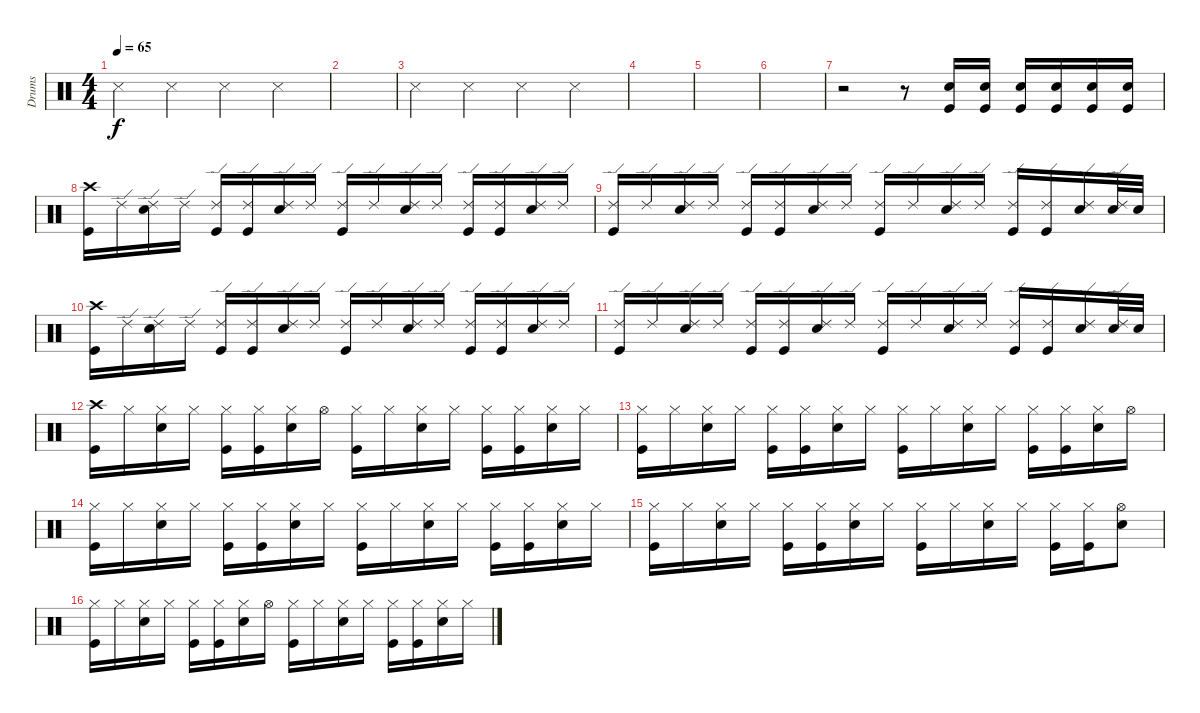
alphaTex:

\track ("Drums" "Drums") {instrument percussion}
\staff {score}
\articulation defaults
\ts (4 4)
\tempo 65
\clef neutral
\ks c "Snare (side stick) 3".4{dy f} "Snare (side stick) 3".4 "Snare (side stick) 3".4 "Snare (side stick) 3".4
|
|
"Snare (side stick) 3".4 "Snare (side stick) 3".4 "Snare (side stick) 3".4 "Snare (side stick) 3".4 |
|
|
|
r.2 r.8 ("Snare (hit) 2" "Kick (hit)").16 ("Snare (hit) 2" "Kick (hit)").16 ("Snare (hit) 2" "Kick (hit)").16 ("Snare (hit) 2" "Kick (hit)").16 ("Snare (hit) 2" "Kick (hit)").16 ("Snare (hit) 2" "Kick (hit)").16 |
("Crash high (hit)" "Kick (hit)").16 "Ride (edge) 2".16 ("Ride (edge) 2" "Snare (hit) 2").16 "Ride (edge) 2".16 ("Ride (edge) 2" "Kick (hit)").16 ("Ride (edge) 2" "Kick (hit)").16 ("Ride (edge) 2" "Snare (hit) 2").16 "Ride (edge) 2".16 ("Ride (edge) 2" "Kick (hit)").16 "Ride (edge) 2".16 ("Ride (edge) 2" "Snare (hit) 2").16 "Ride (edge) 2".16 ("Ride (edge) 2" "Kick (hit)").16 ("Ride (edge) 2" "Kick (hit)").16 ("Ride (edge) 2" "Snare (hit) 2").16 "Ride (edge) 2".16 |
("Ride (edge) 2" "Kick (hit)").16 "Ride (edge) 2".16 ("Ride (edge) 2" "Snare (hit) 2").16 "Ride (edge) 2".16 ("Ride (edge) 2" "Kick (hit)").16 ("Ride (edge) 2" "Kick (hit)").16 ("Ride (edge) 2" "Snare (hit) 2").16 "Ride (edge) 2".16 ("Ride (edge) 2" "Kick (hit)").16 "Ride (edge) 2".16 ("Ride (edge) 2" "Snare (hit) 2").16 "Ride (edge) 2".16 ("Ride (edge) 2" "Kick (hit)").16 ("Ride (edge) 2" "Kick (hit)").16 ("Ride (edge) 2" "Snare (hit) 2").16 ("Ride (edge) 2" "Snare (hit) 2").32 "Snare (hit) 2".32 |
("Crash high (hit)" "Kick (hit)").16 "Ride (edge) 2".16 ("Ride (edge) 2" "Snare (hit) 2").16 "Ride (edge) 2".16 ("Ride (edge) 2" "Kick (hit)").16 ("Ride (edge) 2" "Kick (hit)").16 ("Ride (edge) 2" "Snare (hit) 2").16 "Ride (edge) 2".16 ("Ride (edge) 2" "Kick (hit)").16 "Ride (edge) 2".16 ("Ride (edge) 2" "Snare (hit) 2").16 "Ride (edge) 2".16 ("Ride (edge) 2" "Kick (hit)").16 ("Ride (edge) 2" "Kick (hit)").16 ("Ride (edge) 2" "Snare (hit) 2").16 "Ride (edge) 2".16 |
("Ride (edge) 2" "Kick (hit)").16 "Ride (edge) 2".16 ("Ride (edge) 2" "Snare (hit) 2").16 "Ride (edge) 2".16 ("Ride (edge) 2" "Kick (hit)").16 ("Ride (edge) 2" "Kick (hit)").16 ("Ride (edge) 2" "Snare (hit) 2").16 "Ride (edge) 2".16 ("Ride (edge) 2" "Kick (hit)").16 "Ride (edge) 2".16 ("Ride (edge) 2" "Snare (hit) 2").16 "Ride (edge) 2".16 ("Ride (edge) 2" "Kick (hit)").16 ("Ride (edge) 2" "Kick (hit)").16 ("Ride (edge) 2" "Snare (hit) 2").16 ("Ride (edge) 2" "Snare (hit) 2").32 "Snare (hit) 2".32 |
("Crash high (hit)" "Kick (hit)").16 "Hi-Hat (closed)".16 ("Hi-Hat (closed)" "Snare (hit) 2").16 "Hi-Hat (closed)".16 ("Hi-Hat (closed)" "Kick (hit)").16 ("Hi-Hat (closed)" "Kick (hit)").16 ("Hi-Hat (closed)" "Snare (hit) 2").16 "Hi-Hat (open)".16 ("Hi-Hat (closed)" "Kick (hit)").16 "Hi-Hat (closed)".16 ("Hi-Hat (closed)" "Snare (hit) 2").16 "Hi-Hat (closed)".16 ("Hi-Hat (closed)" "Kick (hit)").16 ("Hi-Hat (closed)" "Kick (hit)").16 ("Hi-Hat (closed)" "Snare (hit) 2").16 "Hi-Hat (closed)".16 |
("Hi-Hat (closed)" "Kick (hit)").16 "Hi-Hat (closed)".16 ("Hi-Hat (closed)" "Snare (hit) 2").16 "Hi-Hat (closed)".16 ("Hi-Hat (closed)" "Kick (hit)").16 ("Hi-Hat (closed)" "Kick (hit)").16 ("Hi-Hat (closed)" "Snare (hit) 2").16 "Hi-Hat (closed)".16 ("Hi-Hat (closed)" "Kick (hit)").16 "Hi-Hat (closed)".16 ("Hi-Hat (closed)" "Snare (hit) 2").16 "Hi-Hat (closed)".16 ("Hi-Hat (closed)" "Kick (hit)").16 ("Hi-Hat (closed)" "Kick (hit)").16 ("Hi-Hat (closed)" "Snare (hit) 2").16 "Hi-Hat (open)".16 |
("Hi-Hat (closed)" "Kick (hit)").16 "Hi-Hat (closed)".16 ("Hi-Hat (closed)" "Snare (hit) 2").16 "Hi-Hat (closed)".16 ("Hi-Hat (closed)" "Kick (hit)").16 ("Hi-Hat (closed)" "Kick (hit)").16 ("Hi-Hat (closed)" "Snare (hit) 2").16 "Hi-Hat (closed)".16 ("Hi-Hat (closed)" "Kick (hit)").16 "Hi-Hat (closed)".16 ("Hi-Hat (closed)" "Snare (hit) 2").16 "Hi-Hat (closed)".16 ("Hi-Hat (closed)" "Kick (hit)").16 ("Hi-Hat (closed)" "Kick (hit)").16 ("Hi-Hat (closed)" "Snare (hit) 2").16 "Hi-Hat (closed)".16 |
("Hi-Hat (closed)" "Kick (hit)").16 "Hi-Hat (closed)".16 ("Hi-Hat (closed)" "Snare (hit) 2").16 "Hi-Hat (closed)".16 ("Hi-Hat (closed)" "Kick (hit)").16 ("Hi-Hat (closed)" "Kick (hit)").16 ("Hi-Hat (closed)" "Snare (hit) 2").16 "Hi-Hat (closed)".16 ("Hi-Hat (closed)" "Kick (hit)").16 "Hi-Hat (closed)".16 ("Hi-Hat (closed)" "Snare (hit) 2").16 "Hi-Hat (closed)".16 ("Hi-Hat (closed)" "Kick (hit)").16 ("Hi-Hat (closed)" "Kick (hit)").16 ("Hi-Hat (open)" "Snare (hit) 2").8 |
("Hi-Hat (closed)" "Kick (hit)").16 "Hi-Hat (closed)".16 ("Hi-Hat (closed)" "Snare (hit) 2").16 "Hi-Hat (closed)".16 ("Hi-Hat (closed)" "Kick (hit)").16 ("Hi-Hat (closed)" "Kick (hit)").16 ("Hi-Hat (closed)" "Snare (hit) 2").16 "Hi-Hat (open)".16 ("Hi-Hat (closed)" "Kick (hit)").16 "Hi-Hat (closed)".16 ("Hi-Hat (closed)" "Snare (hit) 2").16 "Hi-Hat (closed)".16 ("Hi-Hat (closed)" "Kick (hit)").16 ("Hi-Hat (closed)" "Kick (hit)").16 ("Hi-Hat (closed)" "Snare (hit) 2").16 "Hi-Hat (closed)".16
